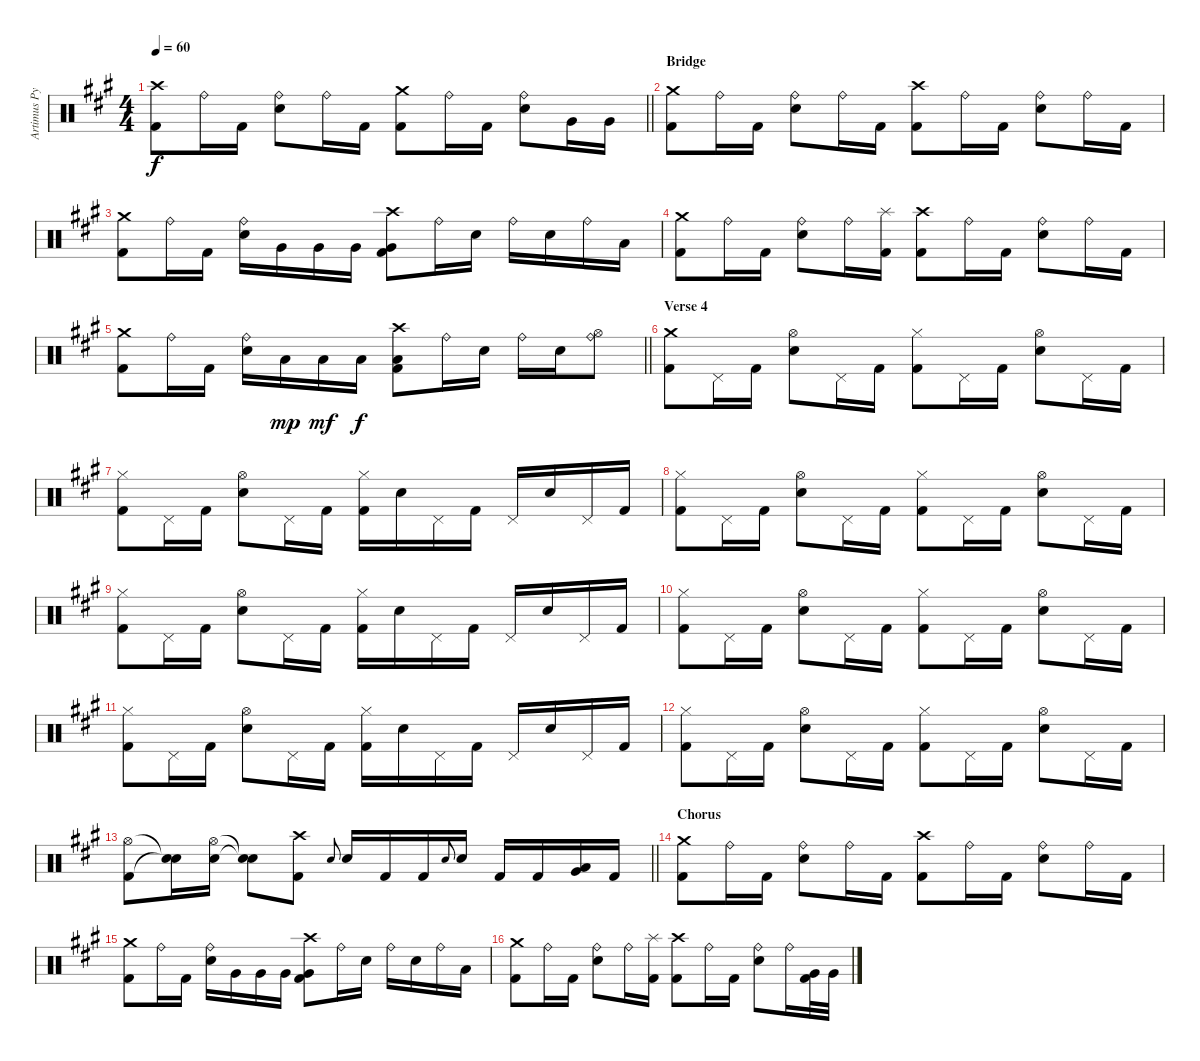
\track ("Artimus Pyle - Drums" "Artimus Py") {instrument percussion}
\staff {score}
\articulation defaults
\ts (4 4)
\tempo 60
\clef neutral
\barLineRight lightlight
\ks f#minor
("Crash high (hit)" "Kick (hit) 2").8{dy f} "Ride (bell)".16 "Kick (hit) 2".16 ("Ride (bell)" "Snare (hit) 2").8 "Ride (bell)".16 "Kick (hit) 2".16 ("Crash medium (hit)" "Kick (hit) 2").8 "Ride (bell)".16 "Kick (hit) 2".16 ("Ride (bell)" "Snare (hit) 2").8 "Very Low Tom (hit)".16 "Very Low Tom (hit)".16 |
\section ("" "Bridge")
("Crash medium (hit)" "Kick (hit) 2").8 "Ride (bell)".16 "Kick (hit) 2".16 ("Ride (bell)" "Snare (hit) 2").8 "Ride (bell)".16 "Kick (hit) 2".16 ("Crash high (hit)" "Kick (hit) 2").8 "Ride (bell)".16 "Kick (hit) 2".16 ("Ride (bell)" "Snare (hit) 2").8 "Ride (bell)".16 "Kick (hit) 2".16 |
("Crash medium (hit)" "Kick (hit) 2").8 "Ride (bell)".16 "Kick (hit) 2".16 ("Ride (bell)" "Snare (hit) 2").16 "Very Low Tom (hit)".16 "Very Low Tom (hit)".16 "Very Low Tom (hit)".16 ("Crash high (hit)" "Very Low Tom (hit)" "Kick (hit) 2").8 "Ride (bell)".16 "Snare (hit) 2".16 "Ride (bell)".16 "Snare (hit) 2".16 "Ride (bell)".16 "Low Floor Tom (hit)".16 |
("Crash medium (hit)" "Kick (hit) 2").8 "Ride (bell)".16 "Kick (hit) 2".16 ("Ride (bell)" "Snare (hit) 2").8 "Ride (bell)".16 ("Splash (hit)" "Kick (hit) 2").16 ("Crash high (hit)" "Kick (hit) 2").8 "Ride (bell)".16 "Kick (hit) 2".16 ("Ride (bell)" "Snare (hit) 2").8 "Ride (bell)".16 "Kick (hit) 2".16 |
\barLineRight lightlight
("Crash medium (hit)" "Kick (hit) 2").8 "Ride (bell)".16 "Kick (hit) 2".16 ("Ride (bell)" "Snare (hit) 2").16 "Low Floor Tom (hit)".16{dy mp} "Low Floor Tom (hit)".16{dy mf} "Low Floor Tom (hit)".16{dy f} ("Crash high (hit)" "Low Floor Tom (hit)" "Kick (hit) 2").8 "Ride (bell)".16 "Snare (hit) 2".16 "Ride (bell)".16 "Snare (hit) 2".16 ("Ride (bell)" "Hi-Hat (open)").8 |
\section ("" "Verse 4")
("Crash medium (hit)" "Kick (hit) 2").8 "Pedal Hi-Hat (hit)".16 "Kick (hit) 2".16 ("Snare (hit) 2" "Hi-Hat (open)").8 "Pedal Hi-Hat (hit)".16 "Kick (hit) 2".16 ("Hi-Hat (closed)" "Kick (hit) 2").8 "Pedal Hi-Hat (hit)".16 "Kick (hit) 2".16 ("Snare (hit) 2" "Hi-Hat (open)").8 "Pedal Hi-Hat (hit)".16 "Kick (hit) 2".16 |
("Hi-Hat (closed)" "Kick (hit) 2").8 "Pedal Hi-Hat (hit)".16 "Kick (hit) 2".16 ("Snare (hit) 2" "Hi-Hat (open)").8 "Pedal Hi-Hat (hit)".16 "Kick (hit) 2".16 ("Hi-Hat (closed)" "Kick (hit) 2").16 "Snare (hit) 2".16 "Pedal Hi-Hat (hit)".16 "Kick (hit) 2".16 "Pedal Hi-Hat (hit)".16 "Snare (hit) 2".16 "Pedal Hi-Hat (hit)".16 "Kick (hit) 2".16 |
("Hi-Hat (closed)" "Kick (hit) 2").8 "Pedal Hi-Hat (hit)".16 "Kick (hit) 2".16 ("Snare (hit) 2" "Hi-Hat (open)").8 "Pedal Hi-Hat (hit)".16 "Kick (hit) 2".16 ("Hi-Hat (closed)" "Kick (hit) 2").8 "Pedal Hi-Hat (hit)".16 "Kick (hit) 2".16 ("Snare (hit) 2" "Hi-Hat (open)").8 "Pedal Hi-Hat (hit)".16 "Kick (hit) 2".16 |
("Hi-Hat (closed)" "Kick (hit) 2").8 "Pedal Hi-Hat (hit)".16 "Kick (hit) 2".16 ("Snare (hit) 2" "Hi-Hat (open)").8 "Pedal Hi-Hat (hit)".16 "Kick (hit) 2".16 ("Hi-Hat (closed)" "Kick (hit) 2").16 "Snare (hit) 2".16 "Pedal Hi-Hat (hit)".16 "Kick (hit) 2".16 "Pedal Hi-Hat (hit)".16 "Snare (hit) 2".16 "Pedal Hi-Hat (hit)".16 "Kick (hit) 2".16 |
("Hi-Hat (closed)" "Kick (hit) 2").8 "Pedal Hi-Hat (hit)".16 "Kick (hit) 2".16 ("Snare (hit) 2" "Hi-Hat (open)").8 "Pedal Hi-Hat (hit)".16 "Kick (hit) 2".16 ("Hi-Hat (closed)" "Kick (hit) 2").8 "Pedal Hi-Hat (hit)".16 "Kick (hit) 2".16 ("Snare (hit) 2" "Hi-Hat (open)").8 "Pedal Hi-Hat (hit)".16 "Kick (hit) 2".16 |
("Hi-Hat (closed)" "Kick (hit) 2").8 "Pedal Hi-Hat (hit)".16 "Kick (hit) 2".16 ("Snare (hit) 2" "Hi-Hat (open)").8 "Pedal Hi-Hat (hit)".16 "Kick (hit) 2".16 ("Hi-Hat (closed)" "Kick (hit) 2").16 "Snare (hit) 2".16 "Pedal Hi-Hat (hit)".16 "Kick (hit) 2".16 "Pedal Hi-Hat (hit)".16 "Snare (hit) 2".16 "Pedal Hi-Hat (hit)".16 "Kick (hit) 2".16 |
("Hi-Hat (closed)" "Kick (hit) 2").8 "Pedal Hi-Hat (hit)".16 "Kick (hit) 2".16 ("Snare (hit) 2" "Hi-Hat (open)").8 "Pedal Hi-Hat (hit)".16 "Kick (hit) 2".16 ("Hi-Hat (closed)" "Kick (hit) 2").8 "Pedal Hi-Hat (hit)".16 "Kick (hit) 2".16 ("Snare (hit) 2" "Hi-Hat (open)").8 "Pedal Hi-Hat (hit)".16 "Kick (hit) 2".16 |
\barLineRight lightlight
("Hi-Hat (open)" "Kick (hit) 2").8 ("Snare (hit)"{t} "Snare (hit)"{t}).16 ("Snare (hit) 2" "Hi-Hat (open)").16 ("Snare (hit)"{t} "Snare (hit)"{t}).8 ("Crash high (hit)" "Kick (hit) 2").8 "Snare (hit) 2".8{gr onbeat} "Snare (hit) 2".16 "Kick (hit) 2".16 "Kick (hit) 2".16 "Snare (hit) 2".8{gr onbeat} "Snare (hit) 2".16 "Kick (hit) 2".16 "Kick (hit) 2".16 ("Very Low Tom (hit)" "Low Floor Tom (hit)").16 "Kick (hit) 2".16 |
\section ("" "Chorus")
("Crash medium (hit)" "Kick (hit) 2").8 "Ride (bell)".16 "Kick (hit) 2".16 ("Ride (bell)" "Snare (hit) 2").8 "Ride (bell)".16 "Kick (hit) 2".16 ("Crash high (hit)" "Kick (hit) 2").8 "Ride (bell)".16 "Kick (hit) 2".16 ("Ride (bell)" "Snare (hit) 2").8 "Ride (bell)".16 "Kick (hit) 2".16 |
("Crash medium (hit)" "Kick (hit) 2").8 "Ride (bell)".16 "Kick (hit) 2".16 ("Ride (bell)" "Snare (hit) 2").16 "Very Low Tom (hit)".16 "Very Low Tom (hit)".16 "Very Low Tom (hit)".16 ("Crash high (hit)" "Very Low Tom (hit)" "Kick (hit) 2").8 "Ride (bell)".16 "Snare (hit) 2".16 "Ride (bell)".16 "Snare (hit) 2".16 "Ride (bell)".16 "Low Floor Tom (hit)".16 |
("Crash medium (hit)" "Kick (hit) 2").8 "Ride (bell)".16 "Kick (hit) 2".16 ("Ride (bell)" "Snare (hit) 2").8 "Ride (bell)".16 ("Splash (hit)" "Kick (hit) 2").16 ("Crash high (hit)" "Kick (hit) 2").8 "Ride (bell)".16 "Kick (hit) 2".16 ("Ride (bell)" "Snare (hit) 2").8 "Ride (bell)".16 ("Very Low Tom (hit)" "Kick (hit) 2").32 "Very Low Tom (hit)".32
